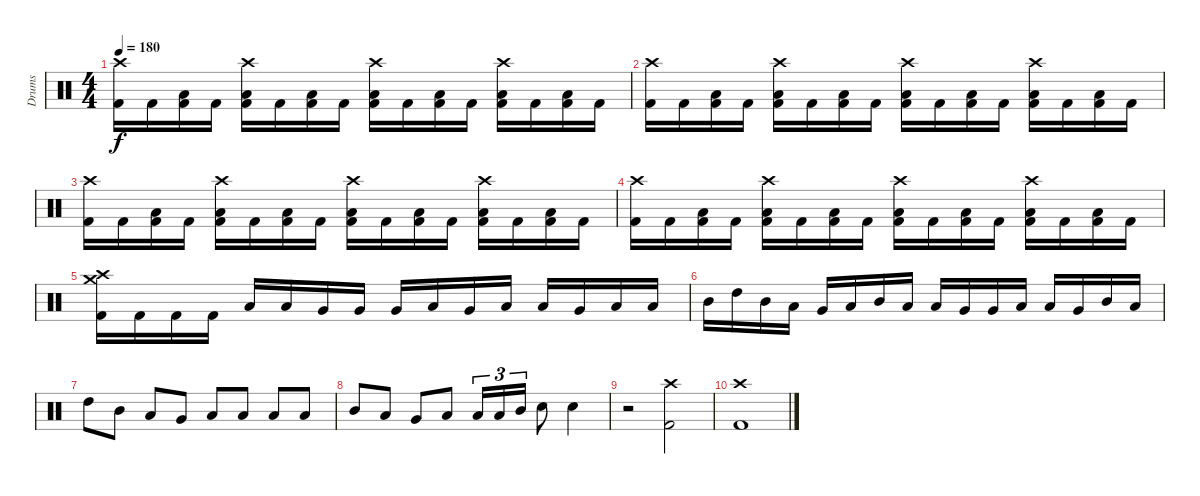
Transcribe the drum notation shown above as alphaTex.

\track ("Drums" "Drums") {instrument percussion}
\staff {score}
\articulation defaults
\ts (4 4)
\tempo 180
\clef neutral
\ks c
("Crash high (hit)" "Kick (hit) 2").16{dy f} "Kick (hit) 2".16 ("Low Floor Tom (hit)" "Kick (hit) 2").16 "Kick (hit) 2".16 ("Low Floor Tom (hit)" "Crash high (hit)" "Kick (hit) 2").16 "Kick (hit) 2".16 ("Low Floor Tom (hit)" "Kick (hit) 2").16 "Kick (hit) 2".16 ("Low Floor Tom (hit)" "Crash high (hit)" "Kick (hit) 2").16 "Kick (hit) 2".16 ("Low Floor Tom (hit)" "Kick (hit) 2").16 "Kick (hit) 2".16 ("Low Floor Tom (hit)" "Crash high (hit)" "Kick (hit) 2").16 "Kick (hit) 2".16 ("Low Floor Tom (hit)" "Kick (hit) 2").16 "Kick (hit) 2".16 |
("Crash high (hit)" "Kick (hit) 2").16 "Kick (hit) 2".16 ("Low Floor Tom (hit)" "Kick (hit) 2").16 "Kick (hit) 2".16 ("Low Floor Tom (hit)" "Crash high (hit)" "Kick (hit) 2").16 "Kick (hit) 2".16 ("Low Floor Tom (hit)" "Kick (hit) 2").16 "Kick (hit) 2".16 ("Low Floor Tom (hit)" "Crash high (hit)" "Kick (hit) 2").16 "Kick (hit) 2".16 ("Low Floor Tom (hit)" "Kick (hit) 2").16 "Kick (hit) 2".16 ("Low Floor Tom (hit)" "Crash high (hit)" "Kick (hit) 2").16 "Kick (hit) 2".16 ("Low Floor Tom (hit)" "Kick (hit) 2").16 "Kick (hit) 2".16 |
("Crash high (hit)" "Kick (hit) 2").16 "Kick (hit) 2".16 ("Low Floor Tom (hit)" "Kick (hit) 2").16 "Kick (hit) 2".16 ("Low Floor Tom (hit)" "Crash high (hit)" "Kick (hit) 2").16 "Kick (hit) 2".16 ("Low Floor Tom (hit)" "Kick (hit) 2").16 "Kick (hit) 2".16 ("Low Floor Tom (hit)" "Crash high (hit)" "Kick (hit) 2").16 "Kick (hit) 2".16 ("Low Floor Tom (hit)" "Kick (hit) 2").16 "Kick (hit) 2".16 ("Low Floor Tom (hit)" "Crash high (hit)" "Kick (hit) 2").16 "Kick (hit) 2".16 ("Low Floor Tom (hit)" "Kick (hit) 2").16 "Kick (hit) 2".16 |
("Crash high (hit)" "Kick (hit) 2").16 "Kick (hit) 2".16 ("Low Floor Tom (hit)" "Kick (hit) 2").16 "Kick (hit) 2".16 ("Low Floor Tom (hit)" "Crash high (hit)" "Kick (hit) 2").16 "Kick (hit) 2".16 ("Low Floor Tom (hit)" "Kick (hit) 2").16 "Kick (hit) 2".16 ("Low Floor Tom (hit)" "Crash high (hit)" "Kick (hit) 2").16 "Kick (hit) 2".16 ("Low Floor Tom (hit)" "Kick (hit) 2").16 "Kick (hit) 2".16 ("Low Floor Tom (hit)" "Crash high (hit)" "Kick (hit) 2").16 "Kick (hit) 2".16 ("Low Floor Tom (hit)" "Kick (hit) 2").16 "Kick (hit) 2".16 |
("Crash medium (hit)" "Crash high (hit)" "Kick (hit) 2").16 "Kick (hit) 2".16 "Kick (hit) 2".16 "Kick (hit) 2".16 "Low Floor Tom (hit)".16 "Low Floor Tom (hit)".16 "Very Low Tom (hit)".16 "Very Low Tom (hit)".16 "Very Low Tom (hit)".16 "Low Floor Tom (hit)".16 "Very Low Tom (hit)".16 "Low Tom (hit)".16 "Low Tom (hit)".16 "Very Low Tom (hit)".16 "Low Tom (hit)".16 "Low Tom (hit)".16 |
"Mid Tom (hit)".16 "High Tom (hit)".16 "Mid Tom (hit)".16 "Low Tom (hit)".16 "Very Low Tom (hit)".16 "Low Floor Tom (hit)".16 "Mid Tom (hit)".16 "Low Tom (hit)".16 "Low Tom (hit)".16 "Very Low Tom (hit)".16 "Very Low Tom (hit)".16 "Low Floor Tom (hit)".16 "Low Tom (hit)".16 "Very Low Tom (hit)".16 "Mid Tom (hit)".16 "Low Floor Tom (hit)".16 |
"High Tom (hit)".8 "Mid Tom (hit)".8 "Low Tom (hit)".8 "Very Low Tom (hit)".8 "Low Floor Tom (hit)".8 "Low Floor Tom (hit)".8 "Low Tom (hit)".8 "Low Tom (hit)".8 |
"Mid Tom (hit)".8 "Low Tom (hit)".8 "Very Low Tom (hit)".8 "Low Floor Tom (hit)".8 "Low Tom (hit)".16{tu (3 2)} "Low Tom (hit)".16{tu (3 2)} "Mid Tom (hit)".16{tu (3 2)} "Electric Snare (hit)".8 "Electric Snare (hit)".4 |
r.2 ("Crash high (hit)" "Kick (hit) 2").2 |
("Crash high (hit)" "Kick (hit) 2").1
